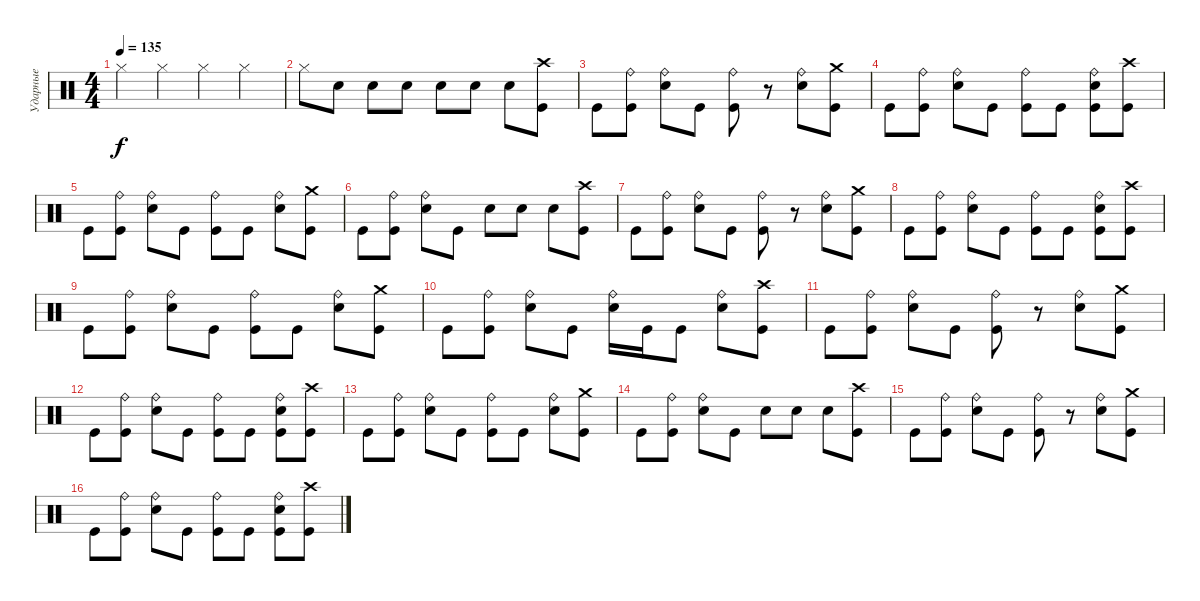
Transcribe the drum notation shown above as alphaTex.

\track ("Ударные" "Ударные") {instrument percussion}
\staff {score}
\articulation defaults
\ts (4 4)
\tempo 135
\clef neutral
\ks c "Hi-Hat (closed)".4{dy f} "Hi-Hat (closed)".4 "Hi-Hat (closed)".4 "Hi-Hat (closed)".4
|
"Hi-Hat (closed)".8 "Electric Snare (hit)".8 "Electric Snare (hit)".8 "Electric Snare (hit)".8 "Electric Snare (hit)".8 "Electric Snare (hit)".8 "Electric Snare (hit)".8 ("Crash high (hit)" "Kick (hit)").8 |
"Kick (hit)".8 ("Ride (bell)" "Kick (hit)").8 ("Ride (bell)" "Electric Snare (hit)").8 "Kick (hit)".8 ("Ride (bell)" "Kick (hit)").8 r.8 ("Ride (bell)" "Electric Snare (hit)").8 ("Crash medium (hit)" "Kick (hit)").8 |
"Kick (hit)".8 ("Ride (bell)" "Kick (hit)").8 ("Ride (bell)" "Electric Snare (hit)").8 "Kick (hit)".8 ("Ride (bell)" "Kick (hit)").8 "Kick (hit)".8 ("Ride (bell)" "Electric Snare (hit)" "Kick (hit)").8 ("Crash high (hit)" "Kick (hit)").8 |
"Kick (hit)".8 ("Ride (bell)" "Kick (hit)").8 ("Ride (bell)" "Electric Snare (hit)").8 "Kick (hit)".8 ("Ride (bell)" "Kick (hit)").8 "Kick (hit)".8 ("Ride (bell)" "Electric Snare (hit)").8 ("Crash medium (hit)" "Kick (hit)").8 |
"Kick (hit)".8 ("Ride (bell)" "Kick (hit)").8 ("Ride (bell)" "Electric Snare (hit)").8 "Kick (hit)".8 "Electric Snare (hit)".8 "Electric Snare (hit)".8 "Electric Snare (hit)".8 ("Crash high (hit)" "Kick (hit)").8 |
"Kick (hit)".8 ("Ride (bell)" "Kick (hit)").8 ("Ride (bell)" "Electric Snare (hit)").8 "Kick (hit)".8 ("Ride (bell)" "Kick (hit)").8 r.8 ("Ride (bell)" "Electric Snare (hit)").8 ("Crash medium (hit)" "Kick (hit)").8 |
"Kick (hit)".8 ("Ride (bell)" "Kick (hit)").8 ("Ride (bell)" "Electric Snare (hit)").8 "Kick (hit)".8 ("Ride (bell)" "Kick (hit)").8 "Kick (hit)".8 ("Ride (bell)" "Electric Snare (hit)" "Kick (hit)").8 ("Crash high (hit)" "Kick (hit)").8 |
"Kick (hit)".8 ("Ride (bell)" "Kick (hit)").8 ("Ride (bell)" "Electric Snare (hit)").8 "Kick (hit)".8 ("Ride (bell)" "Kick (hit)").8 "Kick (hit)".8 ("Ride (bell)" "Electric Snare (hit)").8 ("Crash medium (hit)" "Kick (hit)").8 |
"Kick (hit)".8 ("Ride (bell)" "Kick (hit)").8 ("Ride (bell)" "Electric Snare (hit)").8 "Kick (hit)".8 ("Ride (bell)" "Electric Snare (hit)").16 "Kick (hit)".16 "Kick (hit)".8 ("Ride (bell)" "Electric Snare (hit)").8 ("Crash high (hit)" "Kick (hit)").8 |
"Kick (hit)".8 ("Ride (bell)" "Kick (hit)").8 ("Ride (bell)" "Electric Snare (hit)").8 "Kick (hit)".8 ("Ride (bell)" "Kick (hit)").8 r.8 ("Ride (bell)" "Electric Snare (hit)").8 ("Crash medium (hit)" "Kick (hit)").8 |
"Kick (hit)".8 ("Ride (bell)" "Kick (hit)").8 ("Ride (bell)" "Electric Snare (hit)").8 "Kick (hit)".8 ("Ride (bell)" "Kick (hit)").8 "Kick (hit)".8 ("Ride (bell)" "Electric Snare (hit)" "Kick (hit)").8 ("Crash high (hit)" "Kick (hit)").8 |
"Kick (hit)".8 ("Ride (bell)" "Kick (hit)").8 ("Ride (bell)" "Electric Snare (hit)").8 "Kick (hit)".8 ("Ride (bell)" "Kick (hit)").8 "Kick (hit)".8 ("Ride (bell)" "Electric Snare (hit)").8 ("Crash medium (hit)" "Kick (hit)").8 |
"Kick (hit)".8 ("Ride (bell)" "Kick (hit)").8 ("Ride (bell)" "Electric Snare (hit)").8 "Kick (hit)".8 "Electric Snare (hit)".8 "Electric Snare (hit)".8 "Electric Snare (hit)".8 ("Crash high (hit)" "Kick (hit)").8 |
"Kick (hit)".8 ("Ride (bell)" "Kick (hit)").8 ("Ride (bell)" "Electric Snare (hit)").8 "Kick (hit)".8 ("Ride (bell)" "Kick (hit)").8 r.8 ("Ride (bell)" "Electric Snare (hit)").8 ("Crash medium (hit)" "Kick (hit)").8 |
"Kick (hit)".8 ("Ride (bell)" "Kick (hit)").8 ("Ride (bell)" "Electric Snare (hit)").8 "Kick (hit)".8 ("Ride (bell)" "Kick (hit)").8 "Kick (hit)".8 ("Ride (bell)" "Electric Snare (hit)" "Kick (hit)").8 ("Crash high (hit)" "Kick (hit)").8
